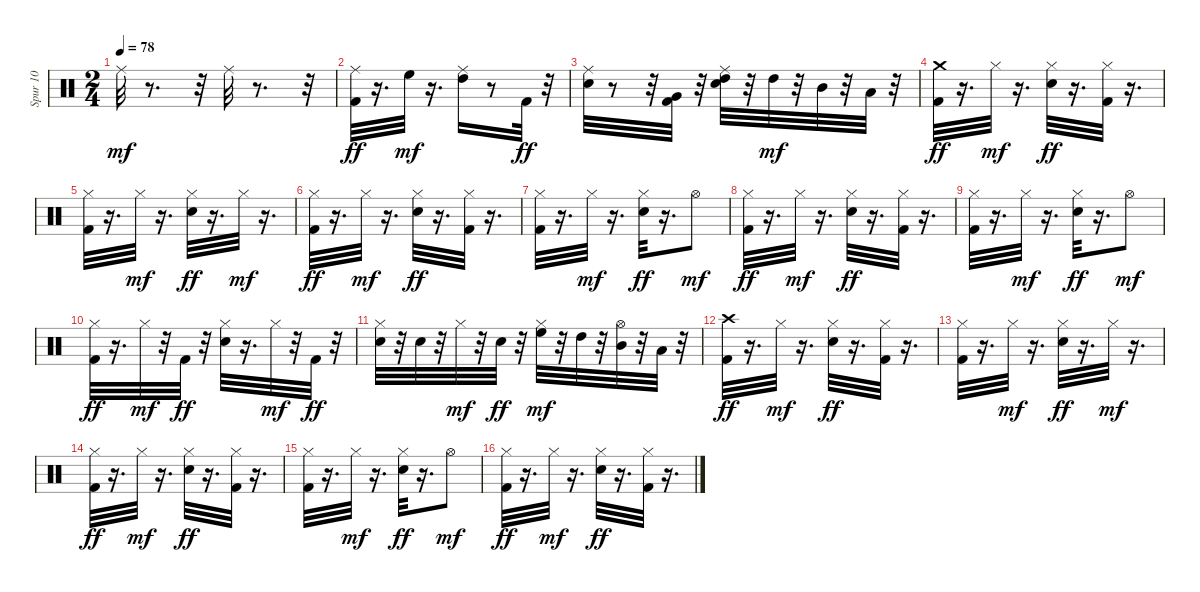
\track ("Spur 10" "Spur 10") {instrument percussion}
\staff {score}
\articulation defaults
\ts (2 4)
\tempo 78
\clef neutral
\ks c "Ride (middle)".32{dy mf}
r.8{d} r.32 "Ride (middle)".32 r.8{d} r.32 |
("Ride (middle)" "Kick (hit) 2").32{dy ff} r.16{d} "High Floor Tom (hit)".32{dy mf} r.16{d} ("High Tom (hit)" "Ride (middle)").16 r.8 "Kick (hit) 2".32{dy ff} r.32 |
("Ride (middle)" "Snare (hit) 2").32 r.8 r.32 ("Very Low Tom (hit)" "Kick (hit) 2").32 r.32 ("High Tom (hit)" "Ride (middle)" "Snare (hit) 2").32 r.32 "High Tom (hit)".32{dy mf} r.32 "Mid Tom (hit)".32 r.32 "Low Tom (hit)".32 r.32 |
("Crash medium (hit)" "Kick (hit) 2").32{dy ff} r.16{d} "Hi-Hat (closed)".32{dy mf} r.16{d} ("Hi-Hat (closed)" "Snare (hit) 2").32{dy ff} r.16{d} ("Hi-Hat (closed)" "Kick (hit) 2").32 r.16{d} |
("Hi-Hat (closed)" "Kick (hit) 2").32 r.16{d} "Hi-Hat (closed)".32{dy mf} r.16{d} ("Hi-Hat (closed)" "Snare (hit) 2").32{dy ff} r.16{d} "Hi-Hat (closed)".32{dy mf} r.16{d} |
("Hi-Hat (closed)" "Kick (hit) 2").32{dy ff} r.16{d} "Hi-Hat (closed)".32{dy mf} r.16{d} ("Hi-Hat (closed)" "Snare (hit) 2").32{dy ff} r.16{d} ("Hi-Hat (closed)" "Kick (hit) 2").32 r.16{d} |
("Hi-Hat (closed)" "Kick (hit) 2").32 r.16{d} "Hi-Hat (closed)".32{dy mf} r.16{d} ("Hi-Hat (closed)" "Snare (hit) 2").32{dy ff} r.16{d} "Hi-Hat (open)".8{dy mf} |
("Hi-Hat (closed)" "Kick (hit) 2").32{dy ff} r.16{d} "Hi-Hat (closed)".32{dy mf} r.16{d} ("Hi-Hat (closed)" "Snare (hit) 2").32{dy ff} r.16{d} ("Hi-Hat (closed)" "Kick (hit) 2").32 r.16{d} |
("Hi-Hat (closed)" "Kick (hit) 2").32 r.16{d} "Hi-Hat (closed)".32{dy mf} r.16{d} ("Hi-Hat (closed)" "Snare (hit) 2").32{dy ff} r.16{d} "Hi-Hat (open)".8{dy mf} |
("Hi-Hat (closed)" "Kick (hit) 2").32{dy ff} r.16{d} "Hi-Hat (closed)".32{dy mf} r.32 "Kick (hit) 2".32{dy ff} r.32 ("Hi-Hat (closed)" "Snare (hit) 2").32 r.16{d} "Hi-Hat (closed)".32{dy mf} r.32 "Kick (hit) 2".32{dy ff} r.32 |
("Hi-Hat (closed)" "Snare (hit) 2").32 r.32 "Snare (hit) 2".32 r.32 "Hi-Hat (closed)".32{dy mf} r.32 "Snare (hit) 2".32{dy ff} r.32 ("High Floor Tom (hit)" "Hi-Hat (closed)").32{dy mf} r.32 "High Tom (hit)".32 r.32 ("Hi-Hat (open)" "Mid Tom (hit)").32 r.32 "Low Tom (hit)".32 r.32 |
("Crash high (hit)" "Kick (hit) 2").32{dy ff} r.16{d} "Hi-Hat (closed)".32{dy mf} r.16{d} ("Hi-Hat (closed)" "Snare (hit) 2").32{dy ff} r.16{d} ("Hi-Hat (closed)" "Kick (hit) 2").32 r.16{d} |
("Hi-Hat (closed)" "Kick (hit) 2").32 r.16{d} "Hi-Hat (closed)".32{dy mf} r.16{d} ("Hi-Hat (closed)" "Snare (hit) 2").32{dy ff} r.16{d} "Hi-Hat (closed)".32{dy mf} r.16{d} |
("Hi-Hat (closed)" "Kick (hit) 2").32{dy ff} r.16{d} "Hi-Hat (closed)".32{dy mf} r.16{d} ("Hi-Hat (closed)" "Snare (hit) 2").32{dy ff} r.16{d} ("Hi-Hat (closed)" "Kick (hit) 2").32 r.16{d} |
("Hi-Hat (closed)" "Kick (hit) 2").32 r.16{d} "Hi-Hat (closed)".32{dy mf} r.16{d} ("Hi-Hat (closed)" "Snare (hit) 2").32{dy ff} r.16{d} "Hi-Hat (open)".8{dy mf} |
("Hi-Hat (closed)" "Kick (hit) 2").32{dy ff} r.16{d} "Hi-Hat (closed)".32{dy mf} r.16{d} ("Hi-Hat (closed)" "Snare (hit) 2").32{dy ff} r.16{d} ("Hi-Hat (closed)" "Kick (hit) 2").32 r.16{d}
